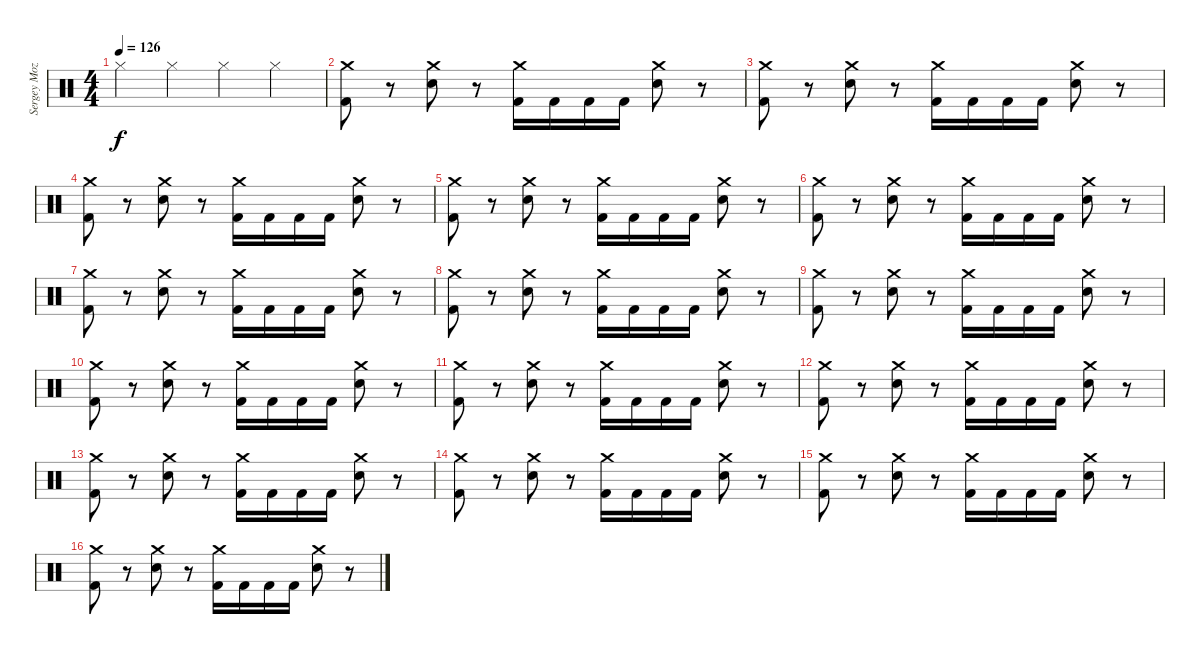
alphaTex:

\track ("Sergey Mozalev" "Sergey Moz") {instrument percussion}
\staff {score}
\articulation defaults
\ts (4 4)
\tempo 126
\clef neutral
\ks c "Hi-Hat (closed)".4{dy f} "Hi-Hat (closed)".4 "Hi-Hat (closed)".4 "Hi-Hat (closed)".4
|
("Crash medium (hit)" "Kick (hit) 2").8 r.8 ("Crash medium (hit)" "Electric Snare (hit)").8 r.8 ("Crash medium (hit)" "Kick (hit) 2").16 "Kick (hit) 2".16 "Kick (hit) 2".16 "Kick (hit) 2".16 ("Crash medium (hit)" "Electric Snare (hit)").8 r.8 |
("Crash medium (hit)" "Kick (hit) 2").8 r.8 ("Crash medium (hit)" "Electric Snare (hit)").8 r.8 ("Crash medium (hit)" "Kick (hit) 2").16 "Kick (hit) 2".16 "Kick (hit) 2".16 "Kick (hit) 2".16 ("Crash medium (hit)" "Electric Snare (hit)").8 r.8 |
("Crash medium (hit)" "Kick (hit) 2").8 r.8 ("Crash medium (hit)" "Electric Snare (hit)").8 r.8 ("Crash medium (hit)" "Kick (hit) 2").16 "Kick (hit) 2".16 "Kick (hit) 2".16 "Kick (hit) 2".16 ("Crash medium (hit)" "Electric Snare (hit)").8 r.8 |
("Crash medium (hit)" "Kick (hit) 2").8 r.8 ("Crash medium (hit)" "Electric Snare (hit)").8 r.8 ("Crash medium (hit)" "Kick (hit) 2").16 "Kick (hit) 2".16 "Kick (hit) 2".16 "Kick (hit) 2".16 ("Crash medium (hit)" "Electric Snare (hit)").8 r.8 |
("Crash medium (hit)" "Kick (hit) 2").8 r.8 ("Crash medium (hit)" "Electric Snare (hit)").8 r.8 ("Crash medium (hit)" "Kick (hit) 2").16 "Kick (hit) 2".16 "Kick (hit) 2".16 "Kick (hit) 2".16 ("Crash medium (hit)" "Electric Snare (hit)").8 r.8 |
("Crash medium (hit)" "Kick (hit) 2").8 r.8 ("Crash medium (hit)" "Electric Snare (hit)").8 r.8 ("Crash medium (hit)" "Kick (hit) 2").16 "Kick (hit) 2".16 "Kick (hit) 2".16 "Kick (hit) 2".16 ("Crash medium (hit)" "Electric Snare (hit)").8 r.8 |
("Crash medium (hit)" "Kick (hit) 2").8 r.8 ("Crash medium (hit)" "Electric Snare (hit)").8 r.8 ("Crash medium (hit)" "Kick (hit) 2").16 "Kick (hit) 2".16 "Kick (hit) 2".16 "Kick (hit) 2".16 ("Crash medium (hit)" "Electric Snare (hit)").8 r.8 |
("Crash medium (hit)" "Kick (hit) 2").8 r.8 ("Crash medium (hit)" "Electric Snare (hit)").8 r.8 ("Crash medium (hit)" "Kick (hit) 2").16 "Kick (hit) 2".16 "Kick (hit) 2".16 "Kick (hit) 2".16 ("Crash medium (hit)" "Electric Snare (hit)").8 r.8 |
("Crash medium (hit)" "Kick (hit) 2").8 r.8 ("Crash medium (hit)" "Electric Snare (hit)").8 r.8 ("Crash medium (hit)" "Kick (hit) 2").16 "Kick (hit) 2".16 "Kick (hit) 2".16 "Kick (hit) 2".16 ("Crash medium (hit)" "Electric Snare (hit)").8 r.8 |
("Crash medium (hit)" "Kick (hit) 2").8 r.8 ("Crash medium (hit)" "Electric Snare (hit)").8 r.8 ("Crash medium (hit)" "Kick (hit) 2").16 "Kick (hit) 2".16 "Kick (hit) 2".16 "Kick (hit) 2".16 ("Crash medium (hit)" "Electric Snare (hit)").8 r.8 |
("Crash medium (hit)" "Kick (hit) 2").8 r.8 ("Crash medium (hit)" "Electric Snare (hit)").8 r.8 ("Crash medium (hit)" "Kick (hit) 2").16 "Kick (hit) 2".16 "Kick (hit) 2".16 "Kick (hit) 2".16 ("Crash medium (hit)" "Electric Snare (hit)").8 r.8 |
("Crash medium (hit)" "Kick (hit) 2").8 r.8 ("Crash medium (hit)" "Electric Snare (hit)").8 r.8 ("Crash medium (hit)" "Kick (hit) 2").16 "Kick (hit) 2".16 "Kick (hit) 2".16 "Kick (hit) 2".16 ("Crash medium (hit)" "Electric Snare (hit)").8 r.8 |
("Crash medium (hit)" "Kick (hit) 2").8 r.8 ("Crash medium (hit)" "Electric Snare (hit)").8 r.8 ("Crash medium (hit)" "Kick (hit) 2").16 "Kick (hit) 2".16 "Kick (hit) 2".16 "Kick (hit) 2".16 ("Crash medium (hit)" "Electric Snare (hit)").8 r.8 |
("Crash medium (hit)" "Kick (hit) 2").8 r.8 ("Crash medium (hit)" "Electric Snare (hit)").8 r.8 ("Crash medium (hit)" "Kick (hit) 2").16 "Kick (hit) 2".16 "Kick (hit) 2".16 "Kick (hit) 2".16 ("Crash medium (hit)" "Electric Snare (hit)").8 r.8 |
("Crash medium (hit)" "Kick (hit) 2").8 r.8 ("Crash medium (hit)" "Electric Snare (hit)").8 r.8 ("Crash medium (hit)" "Kick (hit) 2").16 "Kick (hit) 2".16 "Kick (hit) 2".16 "Kick (hit) 2".16 ("Crash medium (hit)" "Electric Snare (hit)").8 r.8
